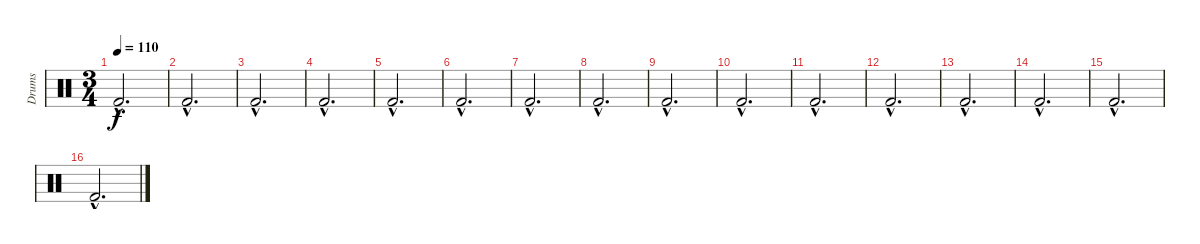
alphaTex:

\track ("Drums" "Drums") {instrument percussion}
\staff {score}
\articulation defaults
\ts (3 4)
\tempo 110
\clef neutral
\ks c "Kick (hit) 2"{hac}.2{d dy f}
|
"Kick (hit) 2"{hac}.2{d} |
"Kick (hit) 2"{hac}.2{d} |
"Kick (hit) 2"{hac}.2{d} |
"Kick (hit) 2"{hac}.2{d} |
"Kick (hit) 2"{hac}.2{d} |
"Kick (hit) 2"{hac}.2{d} |
"Kick (hit) 2"{hac}.2{d} |
"Kick (hit) 2"{hac}.2{d} |
"Kick (hit) 2"{hac}.2{d} |
"Kick (hit) 2"{hac}.2{d} |
"Kick (hit) 2"{hac}.2{d} |
"Kick (hit) 2"{hac}.2{d} |
"Kick (hit) 2"{hac}.2{d} |
"Kick (hit) 2"{hac}.2{d} |
"Kick (hit) 2"{hac}.2{d}
